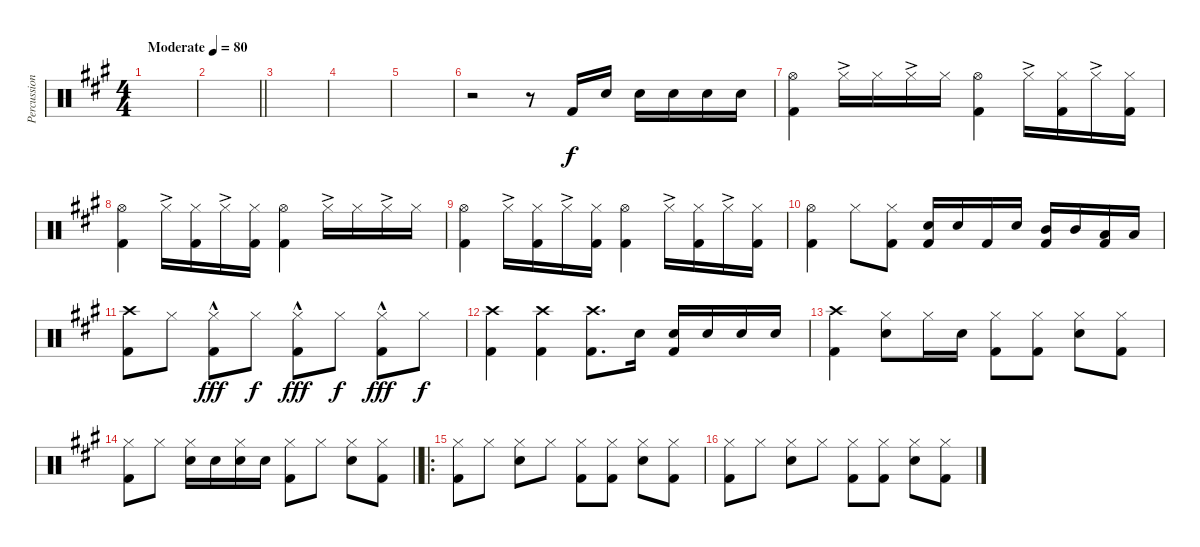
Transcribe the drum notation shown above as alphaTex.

\track ("Percussion" "Percussion") {instrument percussion}
\staff {score}
\articulation defaults
\ts (4 4)
\tempo (80 "Moderate")
\clef neutral
\ks a
|
\barLineRight lightlight
|
|
|
|
r.2 r.8 "Kick (hit) 2".16 "Snare (hit) 2".16 "Snare (hit) 2".16 "Snare (hit) 2".16 "Snare (hit) 2".16 "Snare (hit) 2".16 |
("Hi-Hat (open)" "Kick (hit) 2").4 "Hi-Hat (closed)"{ac}.16 "Hi-Hat (closed)".16 "Hi-Hat (closed)"{ac}.16 "Hi-Hat (closed)".16 ("Hi-Hat (open)" "Kick (hit) 2").4 "Hi-Hat (closed)"{ac}.16 ("Hi-Hat (closed)" "Kick (hit) 2").16 "Hi-Hat (closed)"{ac}.16 ("Hi-Hat (closed)" "Kick (hit) 2").16 |
("Hi-Hat (open)" "Kick (hit) 2").4 "Hi-Hat (closed)"{ac}.16 ("Hi-Hat (closed)" "Kick (hit) 2").16 "Hi-Hat (closed)"{ac}.16 ("Hi-Hat (closed)" "Kick (hit) 2").16 ("Hi-Hat (open)" "Kick (hit) 2").4 "Hi-Hat (closed)"{ac}.16 "Hi-Hat (closed)".16 "Hi-Hat (closed)"{ac}.16 "Hi-Hat (closed)".16 |
("Hi-Hat (open)" "Kick (hit) 2").4 "Hi-Hat (closed)"{ac}.16 ("Hi-Hat (closed)" "Kick (hit) 2").16 "Hi-Hat (closed)"{ac}.16 ("Hi-Hat (closed)" "Kick (hit) 2").16 ("Hi-Hat (open)" "Kick (hit) 2").4 "Hi-Hat (closed)"{ac}.16 ("Hi-Hat (closed)" "Kick (hit) 2").16 "Hi-Hat (closed)"{ac}.16 ("Hi-Hat (closed)" "Kick (hit) 2").16 |
("Hi-Hat (open)" "Kick (hit) 2").4 "Hi-Hat (closed)".8 ("Hi-Hat (closed)" "Kick (hit) 2").8 ("Snare (hit) 2" "Kick (hit) 2").16 "Snare (hit) 2".16 "Kick (hit) 2".16 "Snare (hit) 2".16 ("Mid Tom (hit)" "Kick (hit) 2").16 "Mid Tom (hit)".16 ("Low Tom (hit)" "Kick (hit) 2").16 "Low Tom (hit)".16 |
("Crash high (hit)" "Kick (hit) 2").8 "Hi-Hat (closed)".8 ("Hi-Hat (closed)"{hac} "Kick (hit) 2").8{dy fff} "Hi-Hat (closed)".8{dy f} ("Hi-Hat (closed)"{hac} "Kick (hit) 2").8{dy fff} "Hi-Hat (closed)".8{dy f} ("Hi-Hat (closed)"{hac} "Kick (hit) 2").8{dy fff} "Hi-Hat (closed)".8{dy f} |
("Crash high (hit)" "Kick (hit) 2").4 ("Crash high (hit)" "Kick (hit) 2").4 ("Crash high (hit)" "Kick (hit) 2").8{d} "Snare (hit) 2".16 ("Snare (hit) 2" "Kick (hit) 2").16 "Snare (hit) 2".16 "Snare (hit) 2".16 "Snare (hit) 2".16 |
("Crash high (hit)" "Kick (hit) 2").4 ("Hi-Hat (closed)" "Snare (hit) 2").8 "Hi-Hat (closed)".16 "Snare (hit) 2".16 ("Hi-Hat (closed)" "Kick (hit) 2").8 ("Hi-Hat (closed)" "Kick (hit) 2").8 ("Hi-Hat (closed)" "Snare (hit) 2").8 ("Hi-Hat (closed)" "Kick (hit) 2").8 |
\barLineRight lightlight
("Hi-Hat (closed)" "Kick (hit) 2").8 "Hi-Hat (closed)".8 ("Hi-Hat (closed)" "Snare (hit) 2").16 "Snare (hit) 2".16 ("Hi-Hat (closed)" "Snare (hit) 2").16 "Snare (hit) 2".16 ("Hi-Hat (closed)" "Kick (hit) 2").8 "Hi-Hat (closed)".8 ("Hi-Hat (closed)" "Snare (hit) 2").8 ("Hi-Hat (closed)" "Kick (hit) 2").8 |
\ro
("Hi-Hat (closed)" "Kick (hit) 2").8 "Hi-Hat (closed)".8 ("Hi-Hat (closed)" "Snare (hit) 2").8 "Hi-Hat (closed)".8 ("Hi-Hat (closed)" "Kick (hit) 2").8 ("Hi-Hat (closed)" "Kick (hit) 2").8 ("Hi-Hat (closed)" "Snare (hit) 2").8 ("Hi-Hat (closed)" "Kick (hit) 2").8 |
("Hi-Hat (closed)" "Kick (hit) 2").8 "Hi-Hat (closed)".8 ("Hi-Hat (closed)" "Snare (hit) 2").8 "Hi-Hat (closed)".8 ("Hi-Hat (closed)" "Kick (hit) 2").8 ("Hi-Hat (closed)" "Kick (hit) 2").8 ("Hi-Hat (closed)" "Snare (hit) 2").8 ("Hi-Hat (closed)" "Kick (hit) 2").8
